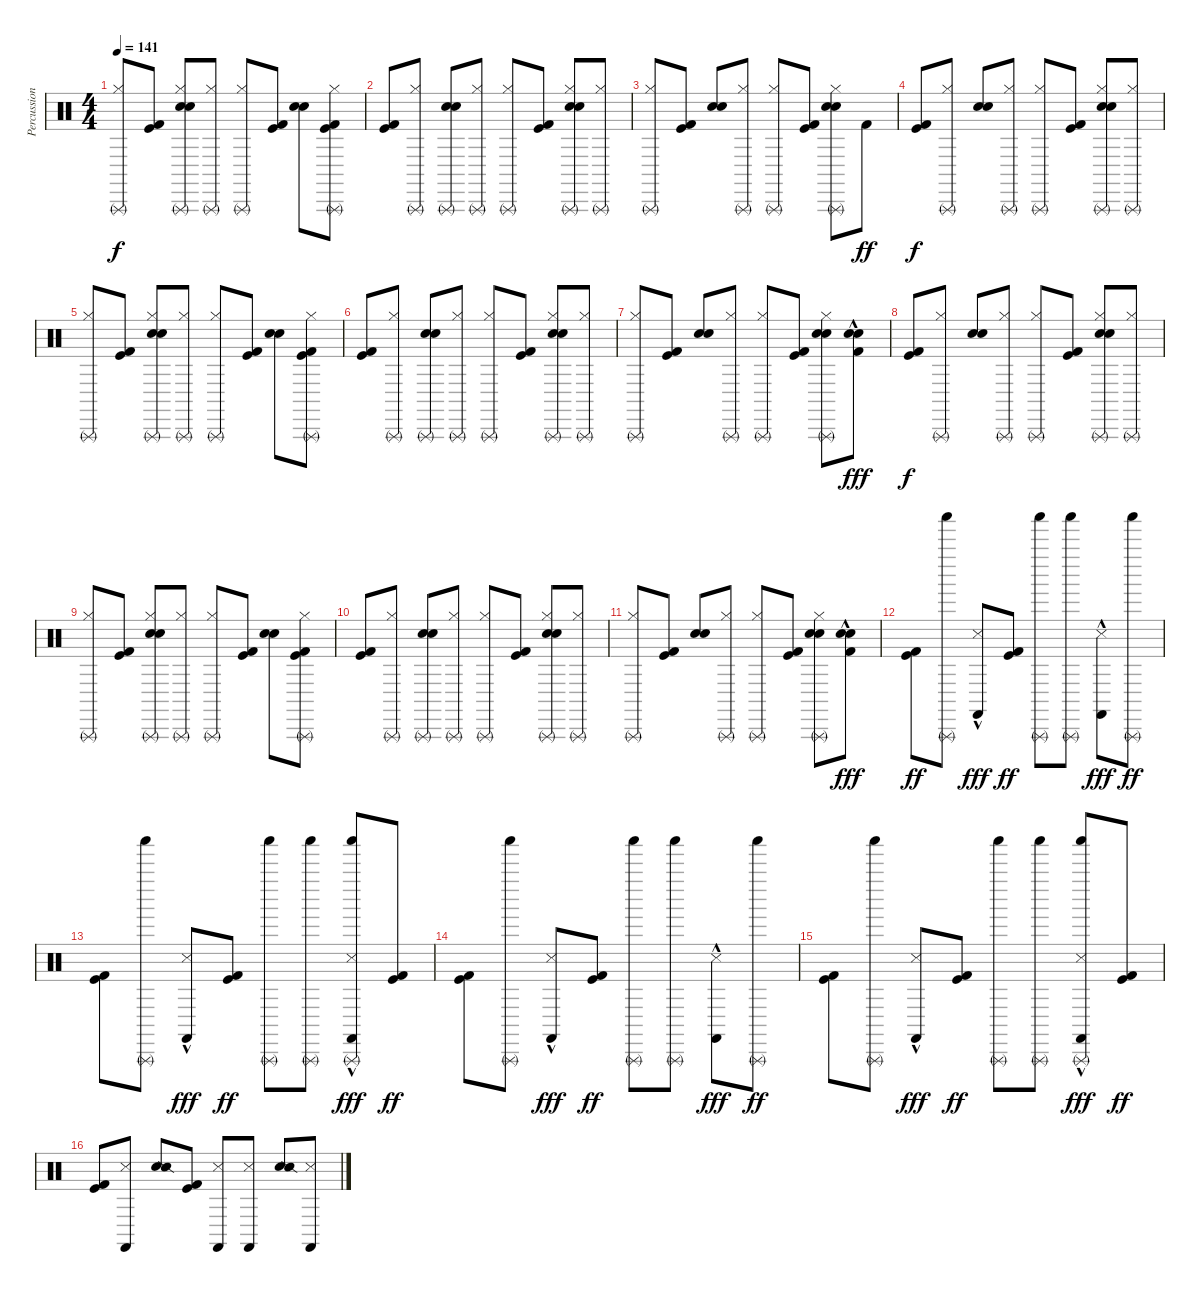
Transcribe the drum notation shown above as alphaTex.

\track ("Percussion" "Percussion") {instrument percussion}
\staff {score}
\articulation defaults
\ts (4 4)
\tempo 141
\clef neutral
\ks c
("Hi-Hat (closed)" "Triangle (rnute)").8{dy f} ("Kick (hit)" "Kick (hit) 2").8 ("Snare (hit) 2" "Electric Snare (hit)" "Hi-Hat (closed)" "Triangle (rnute)").8 ("Hi-Hat (closed)" "Triangle (rnute)").8 ("Hi-Hat (closed)" "Triangle (rnute)").8 ("Kick (hit)" "Kick (hit) 2").8 ("Snare (hit) 2" "Electric Snare (hit)").8 ("Kick (hit)" "Kick (hit) 2" "Hi-Hat (closed)" "Triangle (rnute)").8 |
("Kick (hit)" "Kick (hit) 2").8 ("Hi-Hat (closed)" "Triangle (rnute)").8 ("Snare (hit) 2" "Electric Snare (hit)" "Triangle (rnute)").8 ("Hi-Hat (closed)" "Triangle (rnute)").8 ("Hi-Hat (closed)" "Triangle (rnute)").8 ("Kick (hit)" "Kick (hit) 2").8 ("Snare (hit) 2" "Electric Snare (hit)" "Hi-Hat (closed)" "Triangle (rnute)").8 ("Hi-Hat (closed)" "Triangle (rnute)").8 |
("Hi-Hat (closed)" "Triangle (rnute)").8 ("Kick (hit)" "Kick (hit) 2").8 ("Snare (hit) 2" "Electric Snare (hit)").8 ("Hi-Hat (closed)" "Triangle (rnute)").8 ("Hi-Hat (closed)" "Triangle (rnute)").8 ("Kick (hit)" "Kick (hit) 2").8 ("Snare (hit) 2" "Electric Snare (hit)" "Hi-Hat (closed)" "Triangle (rnute)").8 "Kick (hit) 2".8{dy ff} |
("Kick (hit)" "Kick (hit) 2").8{dy f} ("Hi-Hat (closed)" "Triangle (rnute)").8 ("Snare (hit) 2" "Electric Snare (hit)").8 ("Hi-Hat (closed)" "Triangle (rnute)").8 ("Hi-Hat (closed)" "Triangle (rnute)").8 ("Kick (hit)" "Kick (hit) 2").8 ("Snare (hit) 2" "Electric Snare (hit)" "Hi-Hat (closed)" "Triangle (rnute)").8 ("Hi-Hat (closed)" "Triangle (rnute)").8 |
("Hi-Hat (closed)" "Triangle (rnute)").8 ("Kick (hit)" "Kick (hit) 2").8 ("Snare (hit) 2" "Electric Snare (hit)" "Hi-Hat (closed)" "Triangle (rnute)").8 ("Hi-Hat (closed)" "Triangle (rnute)").8 ("Hi-Hat (closed)" "Triangle (rnute)").8 ("Kick (hit)" "Kick (hit) 2").8 ("Snare (hit) 2" "Electric Snare (hit)").8 ("Kick (hit)" "Kick (hit) 2" "Hi-Hat (closed)" "Triangle (rnute)").8 |
("Kick (hit)" "Kick (hit) 2").8 ("Hi-Hat (closed)" "Triangle (rnute)").8 ("Snare (hit) 2" "Electric Snare (hit)" "Triangle (rnute)").8 ("Hi-Hat (closed)" "Triangle (rnute)").8 ("Hi-Hat (closed)" "Triangle (rnute)").8 ("Kick (hit)" "Kick (hit) 2").8 ("Snare (hit) 2" "Electric Snare (hit)" "Hi-Hat (closed)" "Triangle (rnute)").8 ("Hi-Hat (closed)" "Triangle (rnute)").8 |
("Hi-Hat (closed)" "Triangle (rnute)").8 ("Kick (hit)" "Kick (hit) 2").8 ("Snare (hit) 2" "Electric Snare (hit)").8 ("Hi-Hat (closed)" "Triangle (rnute)").8 ("Hi-Hat (closed)" "Triangle (rnute)").8 ("Kick (hit)" "Kick (hit) 2").8 ("Snare (hit) 2" "Electric Snare (hit)" "Hi-Hat (closed)" "Triangle (rnute)").8 ("Kick (hit) 2" "Snare (hit) 2" "Electric Snare (hit)"{hac}).8{dy fff} |
("Kick (hit)" "Kick (hit) 2").8{dy f} ("Hi-Hat (closed)" "Triangle (rnute)").8 ("Snare (hit) 2" "Electric Snare (hit)").8 ("Hi-Hat (closed)" "Triangle (rnute)").8 ("Hi-Hat (closed)" "Triangle (rnute)").8 ("Kick (hit)" "Kick (hit) 2").8 ("Snare (hit) 2" "Electric Snare (hit)" "Hi-Hat (closed)" "Triangle (rnute)").8 ("Hi-Hat (closed)" "Triangle (rnute)").8 |
("Hi-Hat (closed)" "Triangle (rnute)").8 ("Kick (hit)" "Kick (hit) 2").8 ("Snare (hit) 2" "Electric Snare (hit)" "Hi-Hat (closed)" "Triangle (rnute)").8 ("Hi-Hat (closed)" "Triangle (rnute)").8 ("Hi-Hat (closed)" "Triangle (rnute)").8 ("Kick (hit)" "Kick (hit) 2").8 ("Snare (hit) 2" "Electric Snare (hit)").8 ("Kick (hit)" "Kick (hit) 2" "Hi-Hat (closed)" "Triangle (rnute)").8 |
("Kick (hit)" "Kick (hit) 2").8 ("Hi-Hat (closed)" "Triangle (rnute)").8 ("Snare (hit) 2" "Electric Snare (hit)" "Triangle (rnute)").8 ("Hi-Hat (closed)" "Triangle (rnute)").8 ("Hi-Hat (closed)" "Triangle (rnute)").8 ("Kick (hit)" "Kick (hit) 2").8 ("Snare (hit) 2" "Electric Snare (hit)" "Hi-Hat (closed)" "Triangle (rnute)").8 ("Hi-Hat (closed)" "Triangle (rnute)").8 |
("Hi-Hat (closed)" "Triangle (rnute)").8 ("Kick (hit)" "Kick (hit) 2").8 ("Snare (hit) 2" "Electric Snare (hit)").8 ("Hi-Hat (closed)" "Triangle (rnute)").8 ("Hi-Hat (closed)" "Triangle (rnute)").8 ("Kick (hit)" "Kick (hit) 2").8 ("Snare (hit) 2" "Electric Snare (hit)" "Hi-Hat (closed)" "Triangle (rnute)").8 ("Kick (hit) 2" "Snare (hit) 2" "Electric Snare (hit)"{hac}).8{dy fff} |
("Kick (hit)" "Kick (hit) 2").8{dy ff} ("Shaker (hit)" "Triangle (rnute)").8 ("Castanets (hit)"{hac} "Metronome (hit)"{hac}).8{dy fff} ("Kick (hit)" "Kick (hit) 2").8{dy ff} ("Shaker (hit)" "Triangle (rnute)").8 ("Shaker (hit)" "Triangle (rnute)").8 ("Castanets (hit)"{hac} "Metronome (hit)"{hac}).8{dy fff} ("Shaker (hit)" "Triangle (rnute)").8{dy ff} |
("Kick (hit)" "Kick (hit) 2").8 ("Shaker (hit)" "Triangle (rnute)").8 ("Castanets (hit)"{hac} "Metronome (hit)"{hac}).8{dy fff} ("Kick (hit)" "Kick (hit) 2").8{dy ff} ("Shaker (hit)" "Triangle (rnute)").8 ("Shaker (hit)" "Triangle (rnute)").8 ("Castanets (hit)"{hac} "Metronome (hit)"{hac} "Shaker (hit)"{hac} "Triangle (rnute)"{hac}).8{dy fff} ("Kick (hit)" "Kick (hit) 2").8{dy ff} |
("Kick (hit)" "Kick (hit) 2").8 ("Shaker (hit)" "Triangle (rnute)").8 ("Castanets (hit)"{hac} "Metronome (hit)"{hac}).8{dy fff} ("Kick (hit)" "Kick (hit) 2").8{dy ff} ("Shaker (hit)" "Triangle (rnute)").8 ("Shaker (hit)" "Triangle (rnute)").8 ("Castanets (hit)"{hac} "Metronome (hit)"{hac}).8{dy fff} ("Shaker (hit)" "Triangle (rnute)").8{dy ff} |
("Kick (hit)" "Kick (hit) 2").8 ("Shaker (hit)" "Triangle (rnute)").8 ("Castanets (hit)"{hac} "Metronome (hit)"{hac}).8{dy fff} ("Kick (hit)" "Kick (hit) 2").8{dy ff} ("Shaker (hit)" "Triangle (rnute)").8 ("Shaker (hit)" "Triangle (rnute)").8 ("Castanets (hit)"{hac} "Metronome (hit)"{hac} "Shaker (hit)"{hac} "Triangle (rnute)"{hac}).8{dy fff} ("Kick (hit)" "Kick (hit) 2").8{dy ff} |
("Kick (hit)" "Kick (hit) 2").8 ("Metronome (hit)" "Castanets (hit)").8 ("Electric Snare (hit)" "Snare (side stick) 2").8 ("Kick (hit)" "Kick (hit) 2").8 ("Metronome (hit)" "Castanets (hit)").8 ("Metronome (hit)" "Castanets (hit)").8 ("Electric Snare (hit)" "Snare (side stick) 2").8 ("Metronome (hit)" "Castanets (hit)").8
